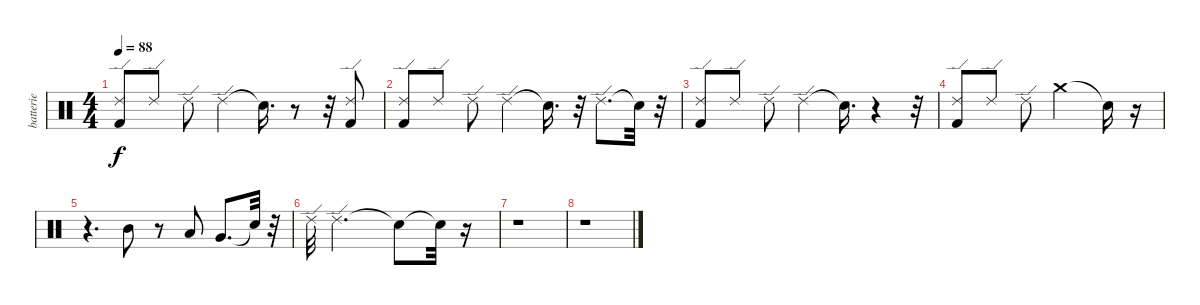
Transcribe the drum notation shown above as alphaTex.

\track ("batterie" "batterie") {instrument percussion}
\staff {score}
\articulation defaults
\ts (4 4)
\tempo 88
\clef neutral
\ks c
("Kick (hit) 2" "Ride (edge) 2").8{dy f} "Ride (edge) 2".8 "Ride (edge) 2".8 "Ride (edge) 2".4 "Snare (hit)"{t}.16{d} r.8 r.32 ("Kick (hit) 2" "Ride (edge) 2").8 |
("Kick (hit) 2" "Ride (edge) 2").8 "Ride (edge) 2".8 "Ride (edge) 2".8 "Ride (edge) 2".4 "Snare (hit)"{t}.16{d} r.32 "Ride (edge) 2".8{d} "Snare (hit)"{t}.32 r.32 |
("Kick (hit) 2" "Ride (edge) 2").8 "Ride (edge) 2".8 "Ride (edge) 2".8 "Ride (edge) 2".4 "Snare (hit)"{t}.16{d} r.4 r.32 |
("Kick (hit) 2" "Ride (edge) 2").8 "Ride (edge) 2".8 "Ride (edge) 2".8 "Crash medium (hit)".2 "Snare (hit)"{t}.16 r.16 |
r.4{d} "Mid Tom (hit)".8 r.8 "Low Tom (hit)".8 "Very Low Tom (hit)".8{d} "Snare (hit)"{t}.32 r.32 |
"Ride (edge) 2".32 "Ride (edge) 2".2{d} "Snare (hit)"{t}.8 "Snare (hit)"{t}.32 r.16 |
r.1 |
r.1
